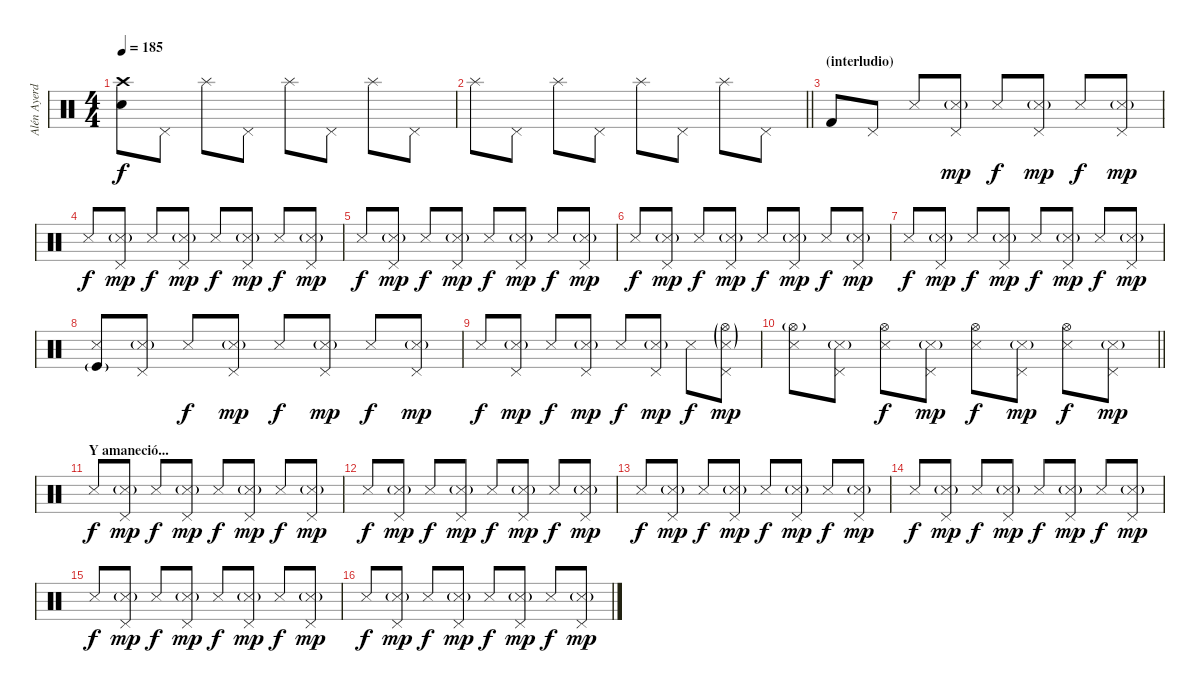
\track ("Alén Ayerdi - Batería" "Alén Ayerd") {instrument percussion}
\staff {score}
\articulation defaults
\ts (4 4)
\tempo 185
\clef neutral
\ks c
("Crash high (hit)" "Electric Snare (hit)").8{dy f} "Pedal Hi-Hat (hit)".8 "Splash (hit)".8 "Pedal Hi-Hat (hit)".8 "Splash (hit)".8 "Pedal Hi-Hat (hit)".8 "Splash (hit)".8 "Pedal Hi-Hat (hit)".8 |
\barLineRight lightlight "Splash (hit)".8 "Pedal Hi-Hat (hit)".8 "Splash (hit)".8 "Pedal Hi-Hat (hit)".8 "Splash (hit)".8 "Pedal Hi-Hat (hit)".8 "Splash (hit)".8 "Pedal Hi-Hat (hit)".8
|
\section ("" "(interludio)")
"Kick (hit) 2".8 "Pedal Hi-Hat (hit)".8 "Snare (side stick) 3".8 ("Pedal Hi-Hat (hit)" "Metronome (hit)"{g}).8{dy mp} "Snare (side stick) 3".8{dy f} ("Pedal Hi-Hat (hit)" "Metronome (hit)"{g}).8{dy mp} "Snare (side stick) 3".8{dy f} ("Pedal Hi-Hat (hit)" "Metronome (hit)"{g}).8{dy mp} |
"Snare (side stick) 3".8{dy f} ("Pedal Hi-Hat (hit)" "Metronome (hit)"{g}).8{dy mp} "Snare (side stick) 3".8{dy f} ("Pedal Hi-Hat (hit)" "Metronome (hit)"{g}).8{dy mp} "Snare (side stick) 3".8{dy f} ("Pedal Hi-Hat (hit)" "Metronome (hit)"{g}).8{dy mp} "Snare (side stick) 3".8{dy f} ("Pedal Hi-Hat (hit)" "Metronome (hit)"{g}).8{dy mp} |
"Snare (side stick) 3".8{dy f} ("Pedal Hi-Hat (hit)" "Metronome (hit)"{g}).8{dy mp} "Snare (side stick) 3".8{dy f} ("Pedal Hi-Hat (hit)" "Metronome (hit)"{g}).8{dy mp} "Snare (side stick) 3".8{dy f} ("Pedal Hi-Hat (hit)" "Metronome (hit)"{g}).8{dy mp} "Snare (side stick) 3".8{dy f} ("Pedal Hi-Hat (hit)" "Metronome (hit)"{g}).8{dy mp} |
"Snare (side stick) 3".8{dy f} ("Pedal Hi-Hat (hit)" "Metronome (hit)"{g}).8{dy mp} "Snare (side stick) 3".8{dy f} ("Pedal Hi-Hat (hit)" "Metronome (hit)"{g}).8{dy mp} "Snare (side stick) 3".8{dy f} ("Pedal Hi-Hat (hit)" "Metronome (hit)"{g}).8{dy mp} "Snare (side stick) 3".8{dy f} ("Pedal Hi-Hat (hit)" "Metronome (hit)"{g}).8{dy mp} |
"Snare (side stick) 3".8{dy f} ("Pedal Hi-Hat (hit)" "Metronome (hit)"{g}).8{dy mp} "Snare (side stick) 3".8{dy f} ("Pedal Hi-Hat (hit)" "Metronome (hit)"{g}).8{dy mp} "Snare (side stick) 3".8{dy f} ("Pedal Hi-Hat (hit)" "Metronome (hit)"{g}).8{dy mp} "Snare (side stick) 3".8{dy f} ("Pedal Hi-Hat (hit)" "Metronome (hit)"{g}).8{dy mp} |
("Snare (side stick) 3" "Kick (hit)"{g}).8 ("Pedal Hi-Hat (hit)" "Metronome (hit)"{g}).8 "Snare (side stick) 3".8{dy f} ("Pedal Hi-Hat (hit)" "Metronome (hit)"{g}).8{dy mp} "Snare (side stick) 3".8{dy f} ("Pedal Hi-Hat (hit)" "Metronome (hit)"{g}).8{dy mp} "Snare (side stick) 3".8{dy f} ("Pedal Hi-Hat (hit)" "Metronome (hit)"{g}).8{dy mp} |
"Snare (side stick) 3".8{dy f} ("Pedal Hi-Hat (hit)" "Metronome (hit)"{g}).8{dy mp} "Snare (side stick) 3".8{dy f} ("Pedal Hi-Hat (hit)" "Metronome (hit)"{g}).8{dy mp} "Snare (side stick) 3".8{dy f} ("Pedal Hi-Hat (hit)" "Metronome (hit)"{g}).8{dy mp} "Snare (side stick) 3".8{dy f} ("Hi-Hat (open)"{g} "Pedal Hi-Hat (hit)" "Metronome (hit)"{g}).8{dy mp} |
\barLineRight lightlight
("Hi-Hat (open)"{g} "Snare (side stick) 3").8 ("Pedal Hi-Hat (hit)" "Metronome (hit)"{g}).8 ("Hi-Hat (open)" "Snare (side stick) 3").8{dy f} ("Pedal Hi-Hat (hit)" "Metronome (hit)"{g}).8{dy mp} ("Hi-Hat (open)" "Snare (side stick) 3").8{dy f} ("Pedal Hi-Hat (hit)" "Metronome (hit)"{g}).8{dy mp} ("Hi-Hat (open)" "Snare (side stick) 3").8{dy f} ("Pedal Hi-Hat (hit)" "Metronome (hit)"{g}).8{dy mp} |
\section ("" "Y amaneció...")
"Snare (side stick) 3".8{dy f} ("Pedal Hi-Hat (hit)" "Metronome (hit)"{g}).8{dy mp} "Snare (side stick) 3".8{dy f} ("Pedal Hi-Hat (hit)" "Metronome (hit)"{g}).8{dy mp} "Snare (side stick) 3".8{dy f} ("Pedal Hi-Hat (hit)" "Metronome (hit)"{g}).8{dy mp} "Snare (side stick) 3".8{dy f} ("Pedal Hi-Hat (hit)" "Metronome (hit)"{g}).8{dy mp} |
"Snare (side stick) 3".8{dy f} ("Pedal Hi-Hat (hit)" "Metronome (hit)"{g}).8{dy mp} "Snare (side stick) 3".8{dy f} ("Pedal Hi-Hat (hit)" "Metronome (hit)"{g}).8{dy mp} "Snare (side stick) 3".8{dy f} ("Pedal Hi-Hat (hit)" "Metronome (hit)"{g}).8{dy mp} "Snare (side stick) 3".8{dy f} ("Pedal Hi-Hat (hit)" "Metronome (hit)"{g}).8{dy mp} |
"Snare (side stick) 3".8{dy f} ("Pedal Hi-Hat (hit)" "Metronome (hit)"{g}).8{dy mp} "Snare (side stick) 3".8{dy f} ("Pedal Hi-Hat (hit)" "Metronome (hit)"{g}).8{dy mp} "Snare (side stick) 3".8{dy f} ("Pedal Hi-Hat (hit)" "Metronome (hit)"{g}).8{dy mp} "Snare (side stick) 3".8{dy f} ("Pedal Hi-Hat (hit)" "Metronome (hit)"{g}).8{dy mp} |
"Snare (side stick) 3".8{dy f} ("Pedal Hi-Hat (hit)" "Metronome (hit)"{g}).8{dy mp} "Snare (side stick) 3".8{dy f} ("Pedal Hi-Hat (hit)" "Metronome (hit)"{g}).8{dy mp} "Snare (side stick) 3".8{dy f} ("Pedal Hi-Hat (hit)" "Metronome (hit)"{g}).8{dy mp} "Snare (side stick) 3".8{dy f} ("Pedal Hi-Hat (hit)" "Metronome (hit)"{g}).8{dy mp} |
"Snare (side stick) 3".8{dy f} ("Pedal Hi-Hat (hit)" "Metronome (hit)"{g}).8{dy mp} "Snare (side stick) 3".8{dy f} ("Pedal Hi-Hat (hit)" "Metronome (hit)"{g}).8{dy mp} "Snare (side stick) 3".8{dy f} ("Pedal Hi-Hat (hit)" "Metronome (hit)"{g}).8{dy mp} "Snare (side stick) 3".8{dy f} ("Pedal Hi-Hat (hit)" "Metronome (hit)"{g}).8{dy mp} |
"Snare (side stick) 3".8{dy f} ("Pedal Hi-Hat (hit)" "Metronome (hit)"{g}).8{dy mp} "Snare (side stick) 3".8{dy f} ("Pedal Hi-Hat (hit)" "Metronome (hit)"{g}).8{dy mp} "Snare (side stick) 3".8{dy f} ("Pedal Hi-Hat (hit)" "Metronome (hit)"{g}).8{dy mp} "Snare (side stick) 3".8{dy f} ("Pedal Hi-Hat (hit)" "Metronome (hit)"{g}).8{dy mp}
